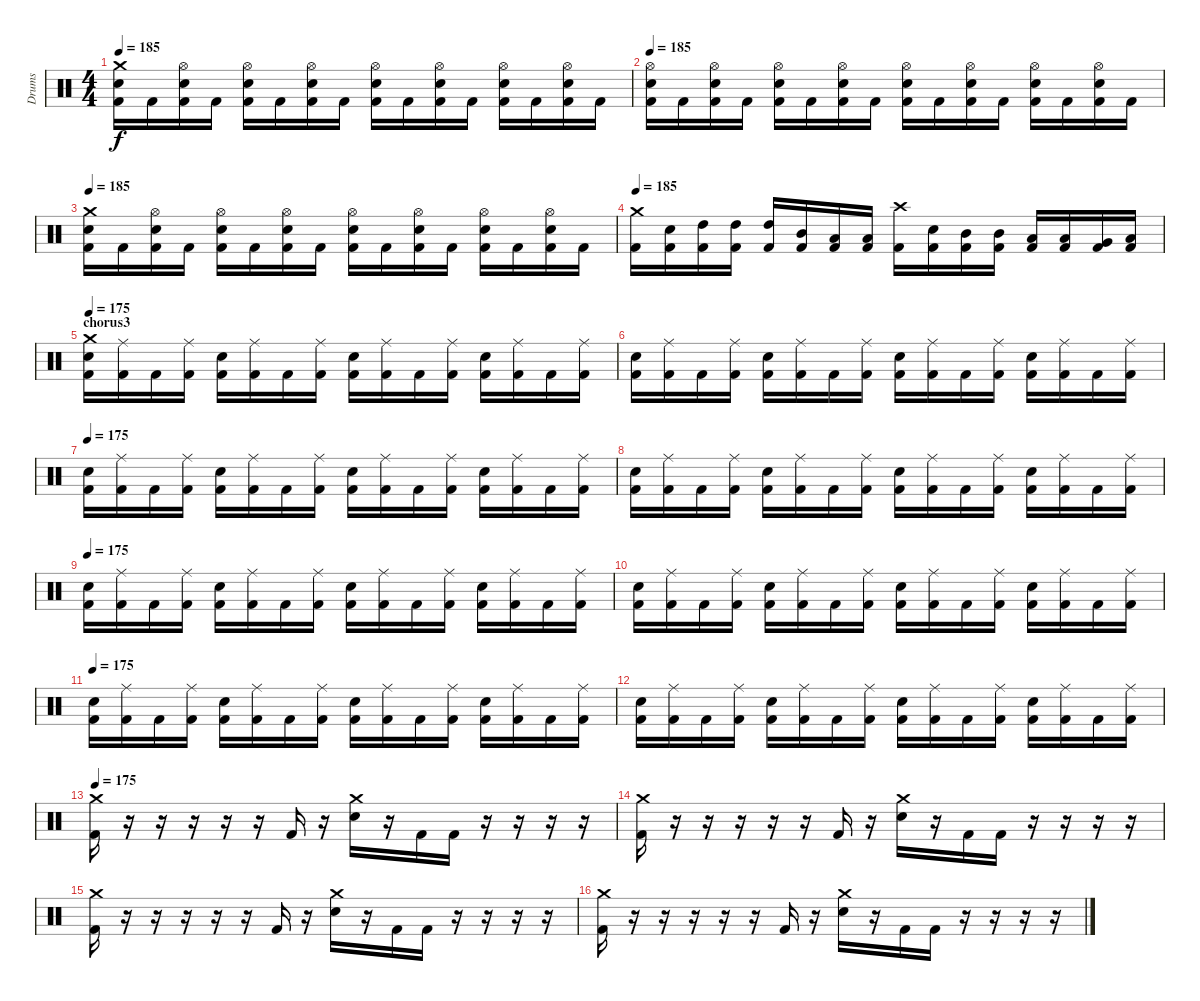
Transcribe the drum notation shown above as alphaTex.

\track ("Drums" "Drums") {instrument percussion}
\staff {score}
\articulation defaults
\ts (4 4)
\tempo 185
\clef neutral
\ks c
("Crash medium (hit)" "Electric Snare (hit)" "Kick (hit) 2").16{dy f} "Kick (hit) 2".16 ("Hi-Hat (open)" "Electric Snare (hit)" "Kick (hit) 2").16 "Kick (hit) 2".16 ("Hi-Hat (open)" "Electric Snare (hit)" "Kick (hit) 2").16 "Kick (hit) 2".16 ("Hi-Hat (open)" "Electric Snare (hit)" "Kick (hit) 2").16 "Kick (hit) 2".16 ("Hi-Hat (open)" "Electric Snare (hit)" "Kick (hit) 2").16 "Kick (hit) 2".16 ("Hi-Hat (open)" "Electric Snare (hit)" "Kick (hit) 2").16 "Kick (hit) 2".16 ("Hi-Hat (open)" "Electric Snare (hit)" "Kick (hit) 2").16 "Kick (hit) 2".16 ("Hi-Hat (open)" "Electric Snare (hit)" "Kick (hit) 2").16 "Kick (hit) 2".16 |
\tempo 185
("Hi-Hat (open)" "Electric Snare (hit)" "Kick (hit) 2").16 "Kick (hit) 2".16 ("Hi-Hat (open)" "Electric Snare (hit)" "Kick (hit) 2").16 "Kick (hit) 2".16 ("Hi-Hat (open)" "Electric Snare (hit)" "Kick (hit) 2").16 "Kick (hit) 2".16 ("Hi-Hat (open)" "Electric Snare (hit)" "Kick (hit) 2").16 "Kick (hit) 2".16 ("Hi-Hat (open)" "Electric Snare (hit)" "Kick (hit) 2").16 "Kick (hit) 2".16 ("Hi-Hat (open)" "Electric Snare (hit)" "Kick (hit) 2").16 "Kick (hit) 2".16 ("Hi-Hat (open)" "Electric Snare (hit)" "Kick (hit) 2").16 "Kick (hit) 2".16 ("Hi-Hat (open)" "Electric Snare (hit)" "Kick (hit) 2").16 "Kick (hit) 2".16 |
\tempo 185
("Crash medium (hit)" "Electric Snare (hit)" "Kick (hit) 2").16 "Kick (hit) 2".16 ("Hi-Hat (open)" "Electric Snare (hit)" "Kick (hit) 2").16 "Kick (hit) 2".16 ("Hi-Hat (open)" "Electric Snare (hit)" "Kick (hit) 2").16 "Kick (hit) 2".16 ("Hi-Hat (open)" "Electric Snare (hit)" "Kick (hit) 2").16 "Kick (hit) 2".16 ("Hi-Hat (open)" "Electric Snare (hit)" "Kick (hit) 2").16 "Kick (hit) 2".16 ("Hi-Hat (open)" "Electric Snare (hit)" "Kick (hit) 2").16 "Kick (hit) 2".16 ("Hi-Hat (open)" "Electric Snare (hit)" "Kick (hit) 2").16 "Kick (hit) 2".16 ("Hi-Hat (open)" "Electric Snare (hit)" "Kick (hit) 2").16 "Kick (hit) 2".16 |
\tempo 185
("Crash medium (hit)" "Kick (hit) 2").16 ("Electric Snare (hit)" "Kick (hit) 2").16 ("High Tom (hit)" "Kick (hit) 2").16 ("High Tom (hit)" "Kick (hit) 2").16 ("High Tom (hit)" "Kick (hit) 2").16 ("Mid Tom (hit)" "Kick (hit) 2").16 ("Low Tom (hit)" "Kick (hit) 2").16 ("Low Tom (hit)" "Kick (hit) 2").16 ("Crash high (hit)" "Kick (hit) 2").16 ("Electric Snare (hit)" "Kick (hit) 2").16 ("Mid Tom (hit)" "Kick (hit) 2").16 ("Mid Tom (hit)" "Kick (hit) 2").16 ("Low Tom (hit)" "Kick (hit) 2").16 ("Low Tom (hit)" "Kick (hit) 2").16 ("Very Low Tom (hit)" "Kick (hit) 2").16 ("Low Floor Tom (hit)" "Kick (hit) 2").16 |
\section ("" "chorus3")
\tempo 175
("Crash medium (hit)" "Electric Snare (hit)" "Kick (hit) 2").16 ("Ride (middle)" "Kick (hit) 2").16 "Kick (hit) 2".16 ("Ride (middle)" "Kick (hit) 2").16 ("Electric Snare (hit)" "Kick (hit) 2").16 ("Ride (middle)" "Kick (hit) 2").16 "Kick (hit) 2".16 ("Ride (middle)" "Kick (hit) 2").16 ("Electric Snare (hit)" "Kick (hit) 2").16 ("Ride (middle)" "Kick (hit) 2").16 "Kick (hit) 2".16 ("Ride (middle)" "Kick (hit) 2").16 ("Electric Snare (hit)" "Kick (hit) 2").16 ("Ride (middle)" "Kick (hit) 2").16 "Kick (hit) 2".16 ("Ride (middle)" "Kick (hit) 2").16 |
("Electric Snare (hit)" "Kick (hit) 2").16 ("Ride (middle)" "Kick (hit) 2").16 "Kick (hit) 2".16 ("Ride (middle)" "Kick (hit) 2").16 ("Electric Snare (hit)" "Kick (hit) 2").16 ("Ride (middle)" "Kick (hit) 2").16 "Kick (hit) 2".16 ("Ride (middle)" "Kick (hit) 2").16 ("Electric Snare (hit)" "Kick (hit) 2").16 ("Ride (middle)" "Kick (hit) 2").16 "Kick (hit) 2".16 ("Ride (middle)" "Kick (hit) 2").16 ("Electric Snare (hit)" "Kick (hit) 2").16 ("Ride (middle)" "Kick (hit) 2").16 "Kick (hit) 2".16 ("Ride (middle)" "Kick (hit) 2").16 |
\tempo 175
("Electric Snare (hit)" "Kick (hit) 2").16 ("Ride (middle)" "Kick (hit) 2").16 "Kick (hit) 2".16 ("Ride (middle)" "Kick (hit) 2").16 ("Electric Snare (hit)" "Kick (hit) 2").16 ("Ride (middle)" "Kick (hit) 2").16 "Kick (hit) 2".16 ("Ride (middle)" "Kick (hit) 2").16 ("Electric Snare (hit)" "Kick (hit) 2").16 ("Ride (middle)" "Kick (hit) 2").16 "Kick (hit) 2".16 ("Ride (middle)" "Kick (hit) 2").16 ("Electric Snare (hit)" "Kick (hit) 2").16 ("Ride (middle)" "Kick (hit) 2").16 "Kick (hit) 2".16 ("Ride (middle)" "Kick (hit) 2").16 |
("Electric Snare (hit)" "Kick (hit) 2").16 ("Ride (middle)" "Kick (hit) 2").16 "Kick (hit) 2".16 ("Ride (middle)" "Kick (hit) 2").16 ("Electric Snare (hit)" "Kick (hit) 2").16 ("Ride (middle)" "Kick (hit) 2").16 "Kick (hit) 2".16 ("Ride (middle)" "Kick (hit) 2").16 ("Electric Snare (hit)" "Kick (hit) 2").16 ("Ride (middle)" "Kick (hit) 2").16 "Kick (hit) 2".16 ("Ride (middle)" "Kick (hit) 2").16 ("Electric Snare (hit)" "Kick (hit) 2").16 ("Ride (middle)" "Kick (hit) 2").16 "Kick (hit) 2".16 ("Ride (middle)" "Kick (hit) 2").16 |
\tempo 175
("Electric Snare (hit)" "Kick (hit) 2").16 ("Ride (middle)" "Kick (hit) 2").16 "Kick (hit) 2".16 ("Ride (middle)" "Kick (hit) 2").16 ("Electric Snare (hit)" "Kick (hit) 2").16 ("Ride (middle)" "Kick (hit) 2").16 "Kick (hit) 2".16 ("Ride (middle)" "Kick (hit) 2").16 ("Electric Snare (hit)" "Kick (hit) 2").16 ("Ride (middle)" "Kick (hit) 2").16 "Kick (hit) 2".16 ("Ride (middle)" "Kick (hit) 2").16 ("Electric Snare (hit)" "Kick (hit) 2").16 ("Ride (middle)" "Kick (hit) 2").16 "Kick (hit) 2".16 ("Ride (middle)" "Kick (hit) 2").16 |
("Electric Snare (hit)" "Kick (hit) 2").16 ("Ride (middle)" "Kick (hit) 2").16 "Kick (hit) 2".16 ("Ride (middle)" "Kick (hit) 2").16 ("Electric Snare (hit)" "Kick (hit) 2").16 ("Ride (middle)" "Kick (hit) 2").16 "Kick (hit) 2".16 ("Ride (middle)" "Kick (hit) 2").16 ("Electric Snare (hit)" "Kick (hit) 2").16 ("Ride (middle)" "Kick (hit) 2").16 "Kick (hit) 2".16 ("Ride (middle)" "Kick (hit) 2").16 ("Electric Snare (hit)" "Kick (hit) 2").16 ("Ride (middle)" "Kick (hit) 2").16 "Kick (hit) 2".16 ("Ride (middle)" "Kick (hit) 2").16 |
\tempo 175
("Electric Snare (hit)" "Kick (hit) 2").16 ("Ride (middle)" "Kick (hit) 2").16 "Kick (hit) 2".16 ("Ride (middle)" "Kick (hit) 2").16 ("Electric Snare (hit)" "Kick (hit) 2").16 ("Ride (middle)" "Kick (hit) 2").16 "Kick (hit) 2".16 ("Ride (middle)" "Kick (hit) 2").16 ("Electric Snare (hit)" "Kick (hit) 2").16 ("Ride (middle)" "Kick (hit) 2").16 "Kick (hit) 2".16 ("Ride (middle)" "Kick (hit) 2").16 ("Electric Snare (hit)" "Kick (hit) 2").16 ("Ride (middle)" "Kick (hit) 2").16 "Kick (hit) 2".16 ("Ride (middle)" "Kick (hit) 2").16 |
("Electric Snare (hit)" "Kick (hit) 2").16 ("Ride (middle)" "Kick (hit) 2").16 "Kick (hit) 2".16 ("Ride (middle)" "Kick (hit) 2").16 ("Electric Snare (hit)" "Kick (hit) 2").16 ("Ride (middle)" "Kick (hit) 2").16 "Kick (hit) 2".16 ("Ride (middle)" "Kick (hit) 2").16 ("Electric Snare (hit)" "Kick (hit) 2").16 ("Ride (middle)" "Kick (hit) 2").16 "Kick (hit) 2".16 ("Ride (middle)" "Kick (hit) 2").16 ("Electric Snare (hit)" "Kick (hit) 2").16 ("Ride (middle)" "Kick (hit) 2").16 "Kick (hit) 2".16 ("Ride (middle)" "Kick (hit) 2").16 |
\tempo 175
("Crash medium (hit)" "Kick (hit) 2").16 r.16 r.16 r.16 r.16 r.16 "Kick (hit) 2".16 r.16 ("Crash medium (hit)" "Electric Snare (hit)").16 r.16 "Kick (hit) 2".16 "Kick (hit) 2".16 r.16 r.16 r.16 r.16 |
("Crash medium (hit)" "Kick (hit) 2").16 r.16 r.16 r.16 r.16 r.16 "Kick (hit) 2".16 r.16 ("Crash medium (hit)" "Electric Snare (hit)").16 r.16 "Kick (hit) 2".16 "Kick (hit) 2".16 r.16 r.16 r.16 r.16 |
("Crash medium (hit)" "Kick (hit) 2").16 r.16 r.16 r.16 r.16 r.16 "Kick (hit) 2".16 r.16 ("Crash medium (hit)" "Electric Snare (hit)").16 r.16 "Kick (hit) 2".16 "Kick (hit) 2".16 r.16 r.16 r.16 r.16 |
("Crash medium (hit)" "Kick (hit) 2").16 r.16 r.16 r.16 r.16 r.16 "Kick (hit) 2".16 r.16 ("Crash medium (hit)" "Electric Snare (hit)").16 r.16 "Kick (hit) 2".16 "Kick (hit) 2".16 r.16 r.16 r.16 r.16
